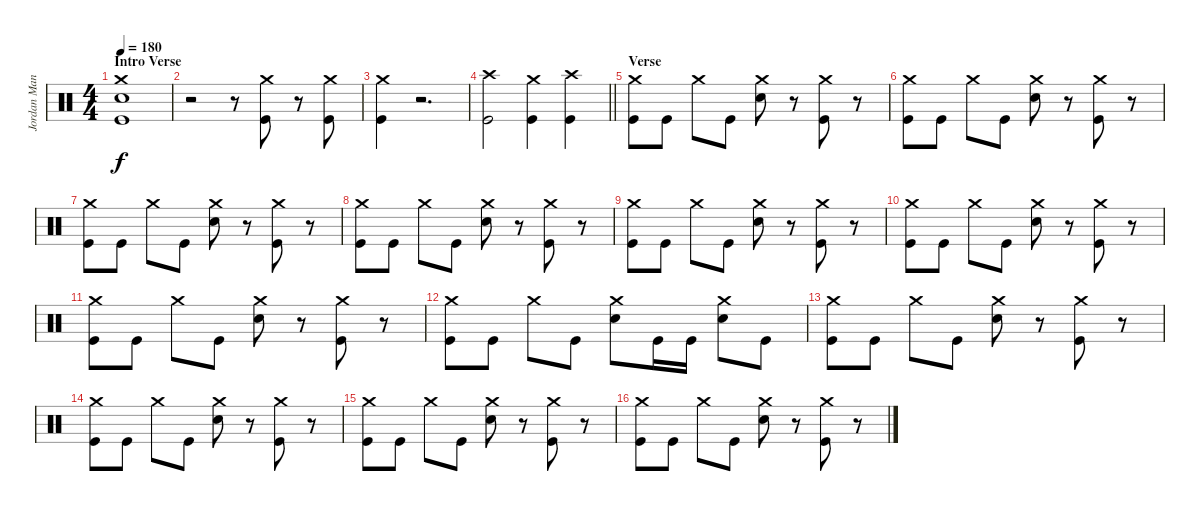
\track ("Jordan Mancino" "Jordan Man") {instrument percussion}
\staff {score}
\articulation defaults
\ts (4 4)
\section ("" "Intro Verse")
\tempo 180
\clef neutral
\ks c
("Crash medium (hit)" "Snare (hit) 2" "Kick (hit)").1{dy f} |
r.2 r.8 ("Crash medium (hit)" "Kick (hit)").8 r.8 ("Crash medium (hit)" "Kick (hit)").8 |
("Crash medium (hit)" "Kick (hit)").4 r.2{d volume 0} |
\barLineRight lightlight
("Crash high (hit)" "Kick (hit)").2{volume 13} ("Crash medium (hit)" "Kick (hit)").4 ("Crash high (hit)" "Kick (hit)").4 |
\section ("" "Verse")
("Crash medium (hit)" "Kick (hit)").8 "Kick (hit)".8 "Crash medium (hit)".8 "Kick (hit)".8 ("Crash medium (hit)" "Snare (hit) 2").8 r.8 ("Crash medium (hit)" "Kick (hit)").8 r.8 |
("Crash medium (hit)" "Kick (hit)").8 "Kick (hit)".8 "Crash medium (hit)".8 "Kick (hit)".8 ("Crash medium (hit)" "Snare (hit) 2").8 r.8 ("Crash medium (hit)" "Kick (hit)").8 r.8 |
("Crash medium (hit)" "Kick (hit)").8 "Kick (hit)".8 "Crash medium (hit)".8 "Kick (hit)".8 ("Crash medium (hit)" "Snare (hit) 2").8 r.8 ("Crash medium (hit)" "Kick (hit)").8 r.8 |
("Crash medium (hit)" "Kick (hit)").8 "Kick (hit)".8 "Crash medium (hit)".8 "Kick (hit)".8 ("Crash medium (hit)" "Snare (hit) 2").8 r.8 ("Crash medium (hit)" "Kick (hit)").8 r.8 |
("Crash medium (hit)" "Kick (hit)").8 "Kick (hit)".8 "Crash medium (hit)".8 "Kick (hit)".8 ("Crash medium (hit)" "Snare (hit) 2").8 r.8 ("Crash medium (hit)" "Kick (hit)").8 r.8 |
("Crash medium (hit)" "Kick (hit)").8 "Kick (hit)".8 "Crash medium (hit)".8 "Kick (hit)".8 ("Crash medium (hit)" "Snare (hit) 2").8 r.8 ("Crash medium (hit)" "Kick (hit)").8 r.8 |
("Crash medium (hit)" "Kick (hit)").8 "Kick (hit)".8 "Crash medium (hit)".8 "Kick (hit)".8 ("Crash medium (hit)" "Snare (hit) 2").8 r.8 ("Crash medium (hit)" "Kick (hit)").8 r.8 |
("Crash medium (hit)" "Kick (hit)").8 "Kick (hit)".8 "Crash medium (hit)".8 "Kick (hit)".8 ("Crash medium (hit)" "Snare (hit) 2").8 "Kick (hit)".16 "Kick (hit)".16 ("Crash medium (hit)" "Snare (hit) 2").8 "Kick (hit)".8 |
("Crash medium (hit)" "Kick (hit)").8 "Kick (hit)".8 "Crash medium (hit)".8 "Kick (hit)".8 ("Crash medium (hit)" "Snare (hit) 2").8 r.8 ("Crash medium (hit)" "Kick (hit)").8 r.8 |
("Crash medium (hit)" "Kick (hit)").8 "Kick (hit)".8 "Crash medium (hit)".8 "Kick (hit)".8 ("Crash medium (hit)" "Snare (hit) 2").8 r.8 ("Crash medium (hit)" "Kick (hit)").8 r.8 |
("Crash medium (hit)" "Kick (hit)").8 "Kick (hit)".8 "Crash medium (hit)".8 "Kick (hit)".8 ("Crash medium (hit)" "Snare (hit) 2").8 r.8 ("Crash medium (hit)" "Kick (hit)").8 r.8 |
("Crash medium (hit)" "Kick (hit)").8 "Kick (hit)".8 "Crash medium (hit)".8 "Kick (hit)".8 ("Crash medium (hit)" "Snare (hit) 2").8 r.8 ("Crash medium (hit)" "Kick (hit)").8 r.8
